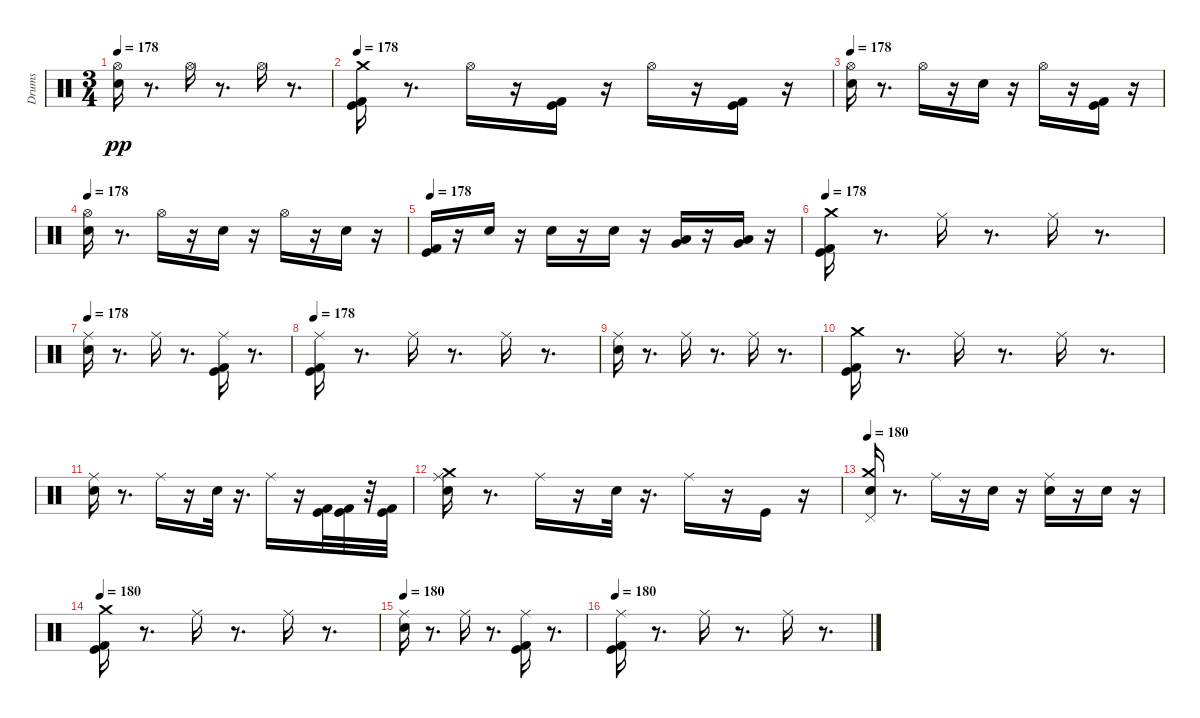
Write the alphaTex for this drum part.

\track ("Drums" "Drums") {instrument percussion}
\staff {score}
\articulation defaults
\ts (3 4)
\tempo 178
\clef neutral
\ks c
("Hi-Hat (open)" "Snare (hit) 2").16{dy pp} r.8{d} "Hi-Hat (open)".16 r.8{d} "Hi-Hat (open)".16 r.8{d} |
\tempo 178
("Crash medium (hit)" "Kick (hit) 2" "Kick (hit)").16 r.8{d} "Hi-Hat (open)".16 r.16 ("Kick (hit) 2" "Kick (hit)").16 r.16 "Hi-Hat (open)".16 r.16 ("Kick (hit) 2" "Kick (hit)").16 r.16 |
\tempo 178
("Hi-Hat (open)" "Snare (hit) 2").16 r.8{d} "Hi-Hat (open)".16 r.16 "Snare (hit) 2".16 r.16 "Hi-Hat (open)".16 r.16 ("Kick (hit) 2" "Kick (hit)").16 r.16 |
\tempo 178
("Hi-Hat (open)" "Snare (hit) 2").16 r.8{d} "Hi-Hat (open)".16 r.16 "Snare (hit) 2".16 r.16 "Hi-Hat (open)".16 r.16 "Snare (hit) 2".16 r.16 |
\tempo 178
("Kick (hit) 2" "Kick (hit)").16 r.16 "Snare (hit) 2".16 r.16 "Snare (hit) 2".16 r.16 "Snare (hit) 2".16 r.16 ("Low Tom (hit)" "Very Low Tom (hit)").16 r.16 ("Low Tom (hit)" "Very Low Tom (hit)").16 r.16 |
\tempo 178
("Crash medium (hit)" "Kick (hit) 2" "Kick (hit)").16 r.8{d} "Ride (middle)".16 r.8{d} "Ride (middle)".16 r.8{d} |
\tempo 178
("Ride (middle)" "Snare (hit) 2").16 r.8{d} "Ride (middle)".16 r.8{d} ("Ride (middle)" "Kick (hit) 2" "Kick (hit)").16 r.8{d} |
\tempo 178
("Ride (middle)" "Kick (hit) 2" "Kick (hit)").16 r.8{d} "Ride (middle)".16 r.8{d} "Ride (middle)".16 r.8{d} |
("Ride (middle)" "Snare (hit) 2").16 r.8{d} "Ride (middle)".16 r.8{d} "Ride (middle)".16 r.8{d} |
("Crash medium (hit)" "Kick (hit) 2" "Kick (hit)").16 r.8{d} "Ride (middle)".16 r.8{d} "Ride (middle)".16 r.8{d} |
("Ride (middle)" "Snare (hit) 2").16 r.8{d} "Ride (middle)".16 r.16 "Snare (hit) 2".32 r.16{d} "Ride (middle)".16 r.16 ("Kick (hit)" "Kick (hit) 2").32 ("Kick (hit)" "Kick (hit) 2").32 r.32 ("Kick (hit)" "Kick (hit) 2").32 |
("Ride (middle)" "Crash medium (hit)" "Snare (hit) 2").16 r.8{d} "Ride (middle)".16 r.16 "Snare (hit) 2".32 r.16{d} "Ride (middle)".16 r.16 "Kick (hit)".16 r.16 |
\tempo 180
("Crash medium (hit)" "Pedal Hi-Hat (hit)" "Snare (hit) 2").16 r.8{d} "Ride (middle)".16 r.16 "Snare (hit) 2".16 r.16 ("Ride (middle)" "Snare (hit) 2").16 r.16 "Snare (hit) 2".16 r.16 |
\tempo 180
("Crash medium (hit)" "Kick (hit) 2" "Kick (hit)").16 r.8{d} "Ride (middle)".16 r.8{d} "Ride (middle)".16 r.8{d} |
\tempo 180
("Ride (middle)" "Snare (hit) 2").16 r.8{d} "Ride (middle)".16 r.8{d} ("Ride (middle)" "Kick (hit) 2" "Kick (hit)").16 r.8{d} |
\tempo 180
("Ride (middle)" "Kick (hit) 2" "Kick (hit)").16 r.8{d} "Ride (middle)".16 r.8{d} "Ride (middle)".16 r.8{d}
